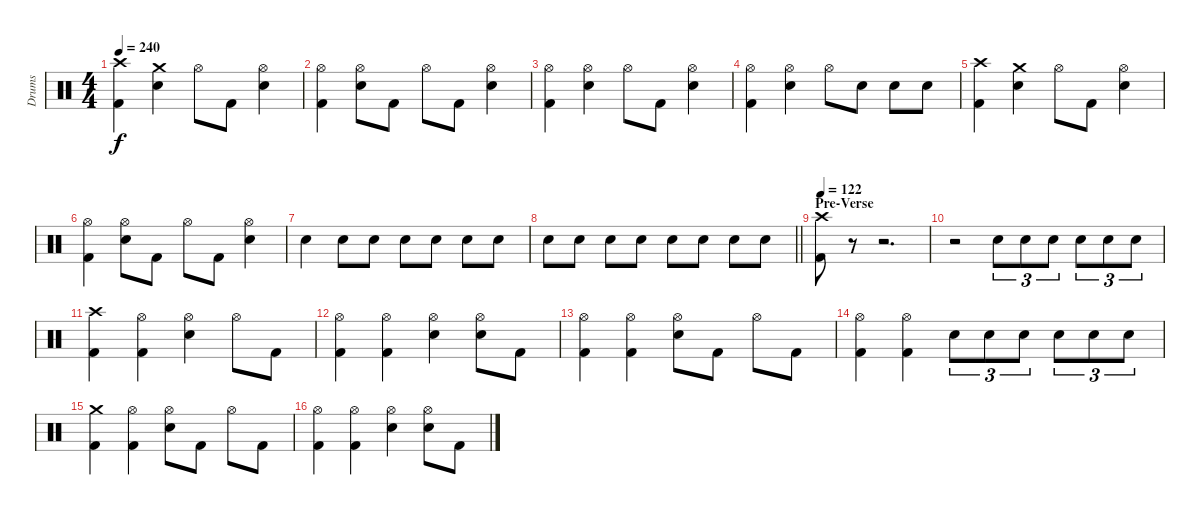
\track ("Drums" "Drums") {instrument percussion}
\staff {score}
\articulation defaults
\ts (4 4)
\tempo 240
\clef neutral
\ks c
("Crash high (hit)" "Kick (hit) 2").4{dy f} ("Crash medium (hit)" "Snare (hit) 2").4 "Hi-Hat (open)".8 "Kick (hit) 2".8 ("Hi-Hat (open)" "Snare (hit) 2").4 |
("Hi-Hat (open)" "Kick (hit) 2").4 ("Hi-Hat (open)" "Snare (hit) 2").8 "Kick (hit) 2".8 "Hi-Hat (open)".8 "Kick (hit) 2".8 ("Hi-Hat (open)" "Snare (hit) 2").4 |
("Hi-Hat (open)" "Kick (hit) 2").4 ("Hi-Hat (open)" "Snare (hit) 2").4 "Hi-Hat (open)".8 "Kick (hit) 2".8 ("Hi-Hat (open)" "Snare (hit) 2").4 |
("Hi-Hat (open)" "Kick (hit) 2").4 ("Hi-Hat (open)" "Snare (hit) 2").4 "Hi-Hat (open)".8 "Snare (hit) 2".8 "Snare (hit) 2".8 "Snare (hit) 2".8 |
("Crash high (hit)" "Kick (hit) 2").4 ("Crash medium (hit)" "Snare (hit) 2").4 "Hi-Hat (open)".8 "Kick (hit) 2".8 ("Hi-Hat (open)" "Snare (hit) 2").4 |
("Hi-Hat (open)" "Kick (hit) 2").4 ("Hi-Hat (open)" "Snare (hit) 2").8 "Kick (hit) 2".8 "Hi-Hat (open)".8 "Kick (hit) 2".8 ("Hi-Hat (open)" "Snare (hit) 2").4 |
"Snare (hit) 2".4 "Snare (hit) 2".8 "Snare (hit) 2".8 "Snare (hit) 2".8 "Snare (hit) 2".8 "Snare (hit) 2".8 "Snare (hit) 2".8 |
\barLineRight lightlight "Snare (hit) 2".8 "Snare (hit) 2".8 "Snare (hit) 2".8 "Snare (hit) 2".8 "Snare (hit) 2".8 "Snare (hit) 2".8 "Snare (hit) 2".8 "Snare (hit) 2".8
|
\section ("" "Pre-Verse")
\tempo 122
("Crash high (hit)" "Kick (hit) 2").8 r.8 r.2{d} |
r.2 "Snare (hit) 2".8{tu (3 2)} "Snare (hit) 2".8{tu (3 2)} "Snare (hit) 2".8{tu (3 2)} "Snare (hit) 2".8{tu (3 2)} "Snare (hit) 2".8{tu (3 2)} "Snare (hit) 2".8{tu (3 2)} |
("Crash high (hit)" "Kick (hit) 2").4 ("Hi-Hat (open)" "Kick (hit) 2").4 ("Hi-Hat (open)" "Snare (hit) 2").4 "Hi-Hat (open)".8 "Kick (hit) 2".8 |
("Hi-Hat (open)" "Kick (hit) 2").4 ("Hi-Hat (open)" "Kick (hit) 2").4 ("Hi-Hat (open)" "Snare (hit) 2").4 ("Hi-Hat (open)" "Snare (hit) 2").8 "Kick (hit) 2".8 |
("Hi-Hat (open)" "Kick (hit) 2").4 ("Hi-Hat (open)" "Kick (hit) 2").4 ("Hi-Hat (open)" "Snare (hit) 2").8 "Kick (hit) 2".8 "Hi-Hat (open)".8 "Kick (hit) 2".8 |
("Hi-Hat (open)" "Kick (hit) 2").4 ("Hi-Hat (open)" "Kick (hit) 2").4 "Snare (hit) 2".8{tu (3 2)} "Snare (hit) 2".8{tu (3 2)} "Snare (hit) 2".8{tu (3 2)} "Snare (hit) 2".8{tu (3 2)} "Snare (hit) 2".8{tu (3 2)} "Snare (hit) 2".8{tu (3 2)} |
("Crash medium (hit)" "Kick (hit) 2").4 ("Hi-Hat (open)" "Kick (hit) 2").4 ("Hi-Hat (open)" "Snare (hit) 2").8 "Kick (hit) 2".8 "Hi-Hat (open)".8 "Kick (hit) 2".8 |
("Hi-Hat (open)" "Kick (hit) 2").4 ("Hi-Hat (open)" "Kick (hit) 2").4 ("Hi-Hat (open)" "Snare (hit) 2").4 ("Hi-Hat (open)" "Snare (hit) 2").8 "Kick (hit) 2".8
